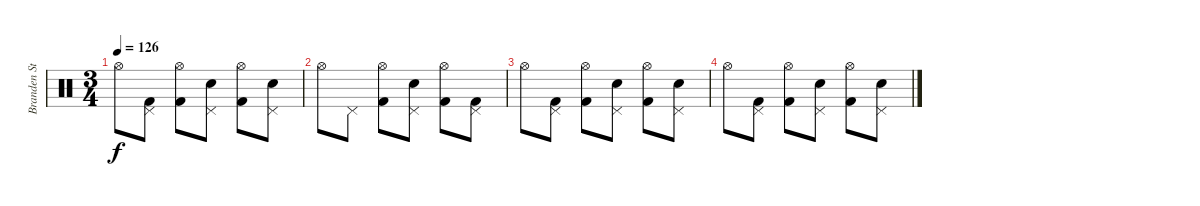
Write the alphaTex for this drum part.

\track ("Branden Steineckert [Drums]" "Branden St") {instrument percussion}
\staff {score}
\articulation defaults
\ts (3 4)
\tempo 126
\clef neutral
\ks c "Hi-Hat (open)".8{dy f}
("Pedal Hi-Hat (hit)" "Kick (hit) 2").8 ("Hi-Hat (open)" "Kick (hit) 2").8 ("Pedal Hi-Hat (hit)" "Electric Snare (hit)").8 ("Hi-Hat (open)" "Kick (hit) 2").8 ("Pedal Hi-Hat (hit)" "Electric Snare (hit)").8 |
"Hi-Hat (open)".8 "Pedal Hi-Hat (hit)".8 ("Hi-Hat (open)" "Kick (hit) 2").8 ("Pedal Hi-Hat (hit)" "Electric Snare (hit)").8 ("Hi-Hat (open)" "Kick (hit) 2").8 ("Pedal Hi-Hat (hit)" "Kick (hit) 2").8 |
"Hi-Hat (open)".8 ("Pedal Hi-Hat (hit)" "Kick (hit) 2").8 ("Hi-Hat (open)" "Kick (hit) 2").8 ("Pedal Hi-Hat (hit)" "Electric Snare (hit)").8 ("Hi-Hat (open)" "Kick (hit) 2").8 ("Pedal Hi-Hat (hit)" "Electric Snare (hit)").8 |
"Hi-Hat (open)".8 ("Pedal Hi-Hat (hit)" "Kick (hit) 2").8 ("Hi-Hat (open)" "Kick (hit) 2").8 ("Pedal Hi-Hat (hit)" "Electric Snare (hit)").8 ("Hi-Hat (open)" "Kick (hit) 2").8 ("Pedal Hi-Hat (hit)" "Electric Snare (hit)").8
